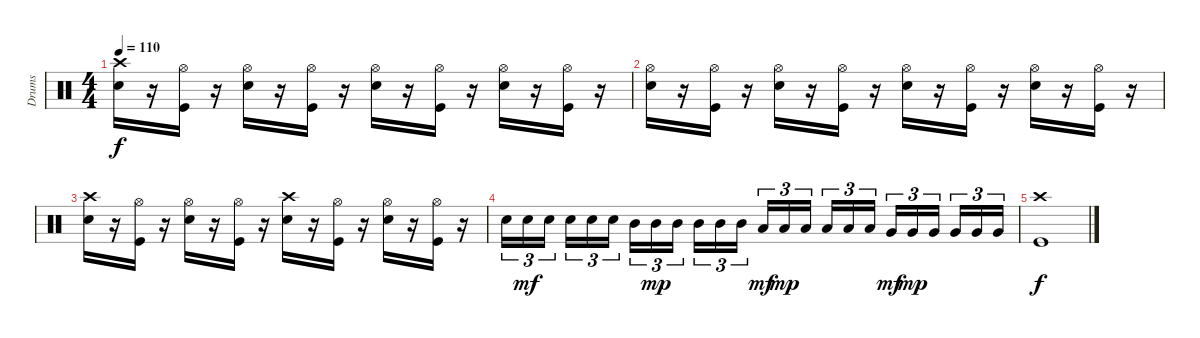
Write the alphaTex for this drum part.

\track ("Drums" "Drums") {instrument percussion}
\staff {score}
\articulation defaults
\ts (4 4)
\tempo 110
\clef neutral
\ks c
("Crash high (hit)" "Snare (hit) 2").16{dy f} r.16 ("Hi-Hat (open)" "Kick (hit)").16 r.16 ("Hi-Hat (open)" "Snare (hit) 2").16 r.16 ("Hi-Hat (open)" "Kick (hit)").16 r.16 ("Hi-Hat (open)" "Snare (hit) 2").16 r.16 ("Hi-Hat (open)" "Kick (hit)").16 r.16 ("Hi-Hat (open)" "Snare (hit) 2").16 r.16 ("Hi-Hat (open)" "Kick (hit)").16 r.16 |
("Hi-Hat (open)" "Snare (hit) 2").16 r.16 ("Hi-Hat (open)" "Kick (hit)").16 r.16 ("Hi-Hat (open)" "Snare (hit) 2").16 r.16 ("Hi-Hat (open)" "Kick (hit)").16 r.16 ("Hi-Hat (open)" "Snare (hit) 2").16 r.16 ("Hi-Hat (open)" "Kick (hit)").16 r.16 ("Hi-Hat (open)" "Snare (hit) 2").16 r.16 ("Hi-Hat (open)" "Kick (hit)").16 r.16 |
("Crash high (hit)" "Snare (hit) 2").16 r.16 ("Hi-Hat (open)" "Kick (hit)").16 r.16 ("Hi-Hat (open)" "Snare (hit) 2").16 r.16 ("Hi-Hat (open)" "Kick (hit)").16 r.16 ("Crash high (hit)" "Snare (hit) 2").16 r.16 ("Hi-Hat (open)" "Kick (hit)").16 r.16 ("Hi-Hat (open)" "Snare (hit) 2").16 r.16 ("Hi-Hat (open)" "Kick (hit)").16 r.16 |
"Snare (hit) 2".16{tu (3 2)} "Snare (hit) 2".16{tu (3 2) dy mf} "Snare (hit) 2".16{tu (3 2)} "Snare (hit) 2".16{tu (3 2)} "Snare (hit) 2".16{tu (3 2)} "Snare (hit) 2".16{tu (3 2)} "Mid Tom (hit)".16{tu (3 2)} "Mid Tom (hit)".16{tu (3 2) dy mp} "Mid Tom (hit)".16{tu (3 2)} "Mid Tom (hit)".16{tu (3 2)} "Mid Tom (hit)".16{tu (3 2)} "Mid Tom (hit)".16{tu (3 2)} "Low Tom (hit)".16{tu (3 2) dy mf} "Low Tom (hit)".16{tu (3 2) dy mp} "Low Tom (hit)".16{tu (3 2)} "Low Tom (hit)".16{tu (3 2)} "Low Tom (hit)".16{tu (3 2)} "Low Tom (hit)".16{tu (3 2)} "Very Low Tom (hit)".16{tu (3 2) dy mf} "Very Low Tom (hit)".16{tu (3 2) dy mp} "Very Low Tom (hit)".16{tu (3 2)} "Very Low Tom (hit)".16{tu (3 2)} "Very Low Tom (hit)".16{tu (3 2)} "Very Low Tom (hit)".16{tu (3 2)} |
("Crash high (hit)" "Kick (hit)").1{dy f}
